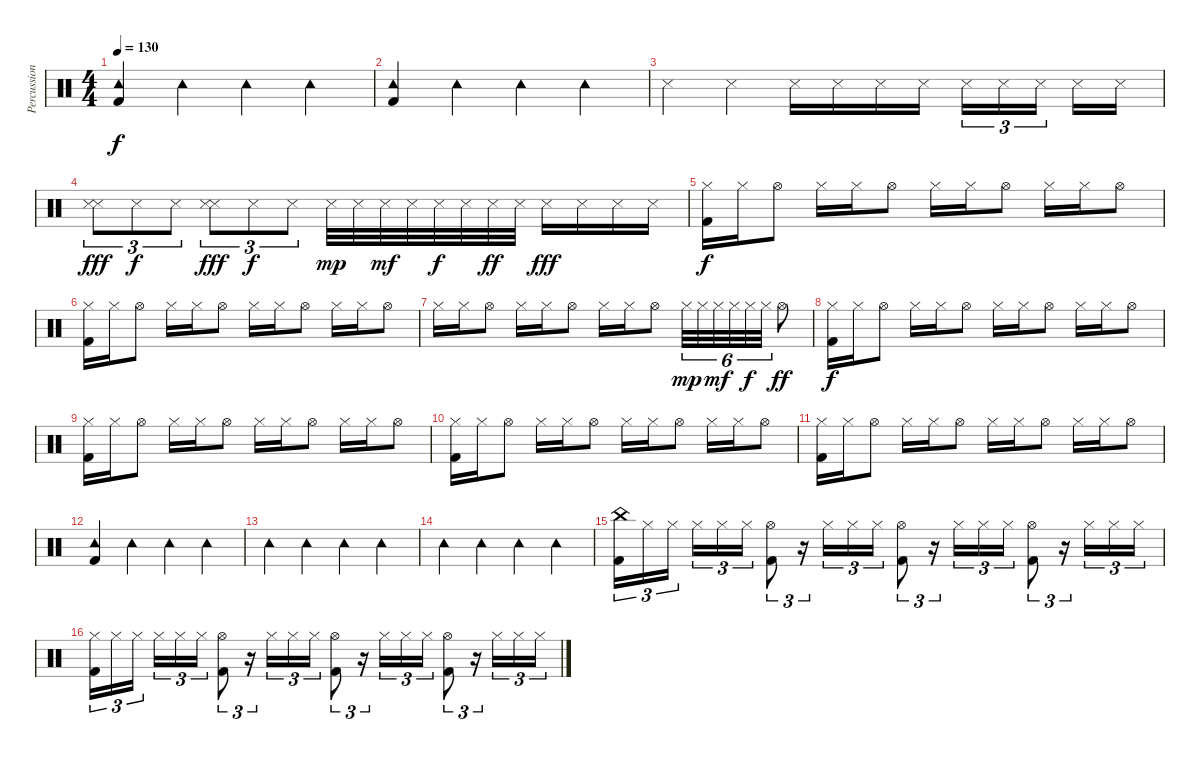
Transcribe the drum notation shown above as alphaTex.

\track ("Percussioni" "Percussion") {instrument percussion}
\staff {score}
\articulation defaults
\ts (4 4)
\tempo 130
\clef neutral
\ks c
("Tambourine (hit)" "Kick (hit) 2").4{dy f} "Tambourine (hit)".4 "Tambourine (hit)".4 "Tambourine (hit)".4 |
("Tambourine (hit)" "Kick (hit) 2").4 "Tambourine (hit)".4 "Tambourine (hit)".4 "Tambourine (hit)".4 |
"Snare (side stick) 3".4 "Snare (side stick) 3".4 "Snare (side stick) 3".16 "Snare (side stick) 3".16 "Snare (side stick) 3".16 "Snare (side stick) 3".16 "Snare (side stick) 3".16{tu (3 2)} "Snare (side stick) 3".16{tu (3 2)} "Snare (side stick) 3".16{tu (3 2)} "Snare (side stick) 3".16 "Snare (side stick) 3".16 |
("Snare (side stick) 3" "Snare (side stick) 3").8{tu (3 2) dy fff} "Snare (side stick) 3".8{tu (3 2) dy f} "Snare (side stick) 3".8{tu (3 2)} ("Snare (side stick) 3" "Snare (side stick) 3").8{tu (3 2) dy fff} "Snare (side stick) 3".8{tu (3 2) dy f} "Snare (side stick) 3".8{tu (3 2)} "Snare (side stick) 3".32{dy mp} "Snare (side stick) 3".32 "Snare (side stick) 3".32{dy mf} "Snare (side stick) 3".32 "Snare (side stick) 3".32{dy f} "Snare (side stick) 3".32 "Snare (side stick) 3".32{dy ff} "Snare (side stick) 3".32 "Snare (side stick) 3".16{dy fff} "Snare (side stick) 3".16 "Snare (side stick) 3".16 "Snare (side stick) 3".16 |
("Hi-Hat (closed)" "Kick (hit) 2").16{dy f} "Hi-Hat (closed)".16 "Hi-Hat (open)".8 "Hi-Hat (closed)".16 "Hi-Hat (closed)".16 "Hi-Hat (open)".8 "Hi-Hat (closed)".16 "Hi-Hat (closed)".16 "Hi-Hat (open)".8 "Hi-Hat (closed)".16 "Hi-Hat (closed)".16 "Hi-Hat (open)".8 |
("Hi-Hat (closed)" "Kick (hit) 2").16 "Hi-Hat (closed)".16 "Hi-Hat (open)".8 "Hi-Hat (closed)".16 "Hi-Hat (closed)".16 "Hi-Hat (open)".8 "Hi-Hat (closed)".16 "Hi-Hat (closed)".16 "Hi-Hat (open)".8 "Hi-Hat (closed)".16 "Hi-Hat (closed)".16 "Hi-Hat (open)".8 |
"Hi-Hat (closed)".16 "Hi-Hat (closed)".16 "Hi-Hat (open)".8 "Hi-Hat (closed)".16 "Hi-Hat (closed)".16 "Hi-Hat (open)".8 "Hi-Hat (closed)".16 "Hi-Hat (closed)".16 "Hi-Hat (open)".8 "Hi-Hat (closed)".32{tu (6 4) dy mp} "Hi-Hat (closed)".32{tu (6 4)} "Hi-Hat (closed)".32{tu (6 4) dy mf} "Hi-Hat (closed)".32{tu (6 4)} "Hi-Hat (closed)".32{tu (6 4) dy f} "Hi-Hat (closed)".32{tu (6 4)} "Hi-Hat (open)".8{dy ff} |
("Hi-Hat (closed)" "Kick (hit) 2").16{dy f} "Hi-Hat (closed)".16 "Hi-Hat (open)".8 "Hi-Hat (closed)".16 "Hi-Hat (closed)".16 "Hi-Hat (open)".8 "Hi-Hat (closed)".16 "Hi-Hat (closed)".16 "Hi-Hat (open)".8 "Hi-Hat (closed)".16 "Hi-Hat (closed)".16 "Hi-Hat (open)".8 |
("Hi-Hat (closed)" "Kick (hit) 2").16 "Hi-Hat (closed)".16 "Hi-Hat (open)".8 "Hi-Hat (closed)".16 "Hi-Hat (closed)".16 "Hi-Hat (open)".8 "Hi-Hat (closed)".16 "Hi-Hat (closed)".16 "Hi-Hat (open)".8 "Hi-Hat (closed)".16 "Hi-Hat (closed)".16 "Hi-Hat (open)".8 |
("Hi-Hat (closed)" "Kick (hit) 2").16 "Hi-Hat (closed)".16 "Hi-Hat (open)".8 "Hi-Hat (closed)".16 "Hi-Hat (closed)".16 "Hi-Hat (open)".8 "Hi-Hat (closed)".16 "Hi-Hat (closed)".16 "Hi-Hat (open)".8 "Hi-Hat (closed)".16 "Hi-Hat (closed)".16 "Hi-Hat (open)".8 |
("Hi-Hat (closed)" "Kick (hit) 2").16 "Hi-Hat (closed)".16 "Hi-Hat (open)".8 "Hi-Hat (closed)".16 "Hi-Hat (closed)".16 "Hi-Hat (open)".8 "Hi-Hat (closed)".16 "Hi-Hat (closed)".16 "Hi-Hat (open)".8 "Hi-Hat (closed)".16 "Hi-Hat (closed)".16 "Hi-Hat (open)".8 |
("Tambourine (hit)" "Kick (hit) 2").4 "Tambourine (hit)".4 "Tambourine (hit)".4 "Tambourine (hit)".4 |
"Tambourine (hit)".4 "Tambourine (hit)".4 "Tambourine (hit)".4 "Tambourine (hit)".4 |
"Tambourine (hit)".4 "Tambourine (hit)".4 "Tambourine (hit)".4 "Tambourine (hit)".4 |
("China (hit)" "Kick (hit) 2").16{tu (3 2)} "Hi-Hat (closed)".16{tu (3 2)} "Hi-Hat (closed)".16{tu (3 2)} "Hi-Hat (closed)".16{tu (3 2)} "Hi-Hat (closed)".16{tu (3 2)} "Hi-Hat (closed)".16{tu (3 2)} ("Hi-Hat (open)" "Kick (hit) 2").8{tu (3 2)} r.16{tu (3 2)} "Hi-Hat (closed)".16{tu (3 2)} "Hi-Hat (closed)".16{tu (3 2)} "Hi-Hat (closed)".16{tu (3 2)} ("Hi-Hat (open)" "Kick (hit) 2").8{tu (3 2)} r.16{tu (3 2)} "Hi-Hat (closed)".16{tu (3 2)} "Hi-Hat (closed)".16{tu (3 2)} "Hi-Hat (closed)".16{tu (3 2)} ("Hi-Hat (open)" "Kick (hit) 2").8{tu (3 2)} r.16{tu (3 2)} "Hi-Hat (closed)".16{tu (3 2)} "Hi-Hat (closed)".16{tu (3 2)} "Hi-Hat (closed)".16{tu (3 2)} |
("Hi-Hat (closed)" "Kick (hit) 2").16{tu (3 2)} "Hi-Hat (closed)".16{tu (3 2)} "Hi-Hat (closed)".16{tu (3 2)} "Hi-Hat (closed)".16{tu (3 2)} "Hi-Hat (closed)".16{tu (3 2)} "Hi-Hat (closed)".16{tu (3 2)} ("Hi-Hat (open)" "Kick (hit) 2").8{tu (3 2)} r.16{tu (3 2)} "Hi-Hat (closed)".16{tu (3 2)} "Hi-Hat (closed)".16{tu (3 2)} "Hi-Hat (closed)".16{tu (3 2)} ("Hi-Hat (open)" "Kick (hit) 2").8{tu (3 2)} r.16{tu (3 2)} "Hi-Hat (closed)".16{tu (3 2)} "Hi-Hat (closed)".16{tu (3 2)} "Hi-Hat (closed)".16{tu (3 2)} ("Hi-Hat (open)" "Kick (hit) 2").8{tu (3 2)} r.16{tu (3 2)} "Hi-Hat (closed)".16{tu (3 2)} "Hi-Hat (closed)".16{tu (3 2)} "Hi-Hat (closed)".16{tu (3 2)}
